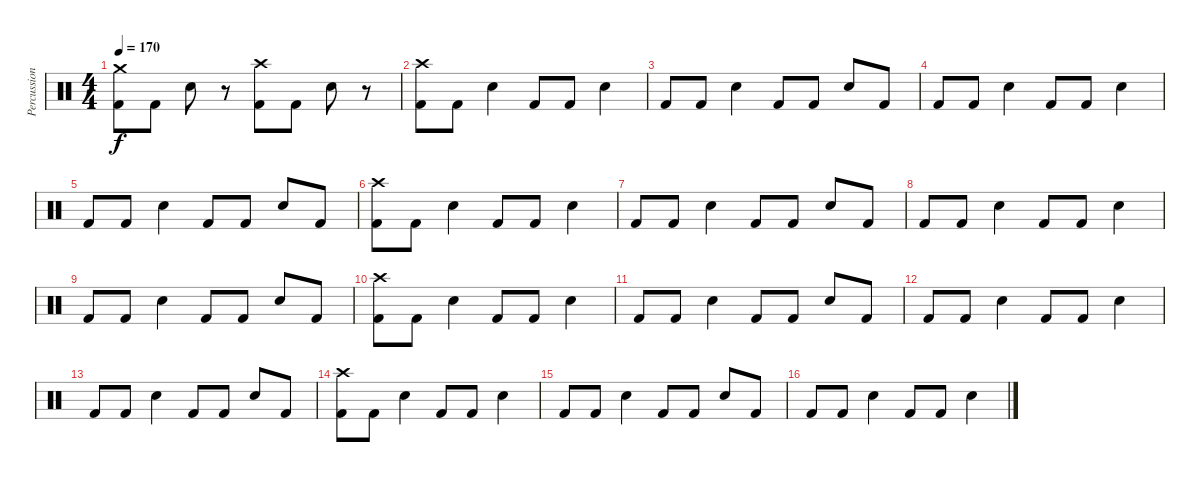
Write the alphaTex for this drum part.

\track ("Percussion" "Percussion") {instrument percussion}
\staff {score}
\articulation defaults
\ts (4 4)
\tempo 170
\clef neutral
\ks c
("Crash medium (hit)" "Kick (hit) 2").8{dy f} "Kick (hit) 2".8 "Electric Snare (hit)".8 r.8 ("Crash high (hit)" "Kick (hit) 2").8 "Kick (hit) 2".8 "Electric Snare (hit)".8 r.8 |
("Crash high (hit)" "Kick (hit) 2").8 "Kick (hit) 2".8 "Electric Snare (hit)".4 "Kick (hit) 2".8 "Kick (hit) 2".8 "Electric Snare (hit)".4 |
"Kick (hit) 2".8 "Kick (hit) 2".8 "Electric Snare (hit)".4 "Kick (hit) 2".8 "Kick (hit) 2".8 "Electric Snare (hit)".8 "Kick (hit) 2".8 |
"Kick (hit) 2".8 "Kick (hit) 2".8 "Electric Snare (hit)".4 "Kick (hit) 2".8 "Kick (hit) 2".8 "Electric Snare (hit)".4 |
"Kick (hit) 2".8 "Kick (hit) 2".8 "Electric Snare (hit)".4 "Kick (hit) 2".8 "Kick (hit) 2".8 "Electric Snare (hit)".8 "Kick (hit) 2".8 |
("Crash high (hit)" "Kick (hit) 2").8 "Kick (hit) 2".8 "Electric Snare (hit)".4 "Kick (hit) 2".8 "Kick (hit) 2".8 "Electric Snare (hit)".4 |
"Kick (hit) 2".8 "Kick (hit) 2".8 "Electric Snare (hit)".4 "Kick (hit) 2".8 "Kick (hit) 2".8 "Electric Snare (hit)".8 "Kick (hit) 2".8 |
"Kick (hit) 2".8 "Kick (hit) 2".8 "Electric Snare (hit)".4 "Kick (hit) 2".8 "Kick (hit) 2".8 "Electric Snare (hit)".4 |
"Kick (hit) 2".8 "Kick (hit) 2".8 "Electric Snare (hit)".4 "Kick (hit) 2".8 "Kick (hit) 2".8 "Electric Snare (hit)".8 "Kick (hit) 2".8 |
("Crash high (hit)" "Kick (hit) 2").8 "Kick (hit) 2".8 "Electric Snare (hit)".4 "Kick (hit) 2".8 "Kick (hit) 2".8 "Electric Snare (hit)".4 |
"Kick (hit) 2".8 "Kick (hit) 2".8 "Electric Snare (hit)".4 "Kick (hit) 2".8 "Kick (hit) 2".8 "Electric Snare (hit)".8 "Kick (hit) 2".8 |
"Kick (hit) 2".8 "Kick (hit) 2".8 "Electric Snare (hit)".4 "Kick (hit) 2".8 "Kick (hit) 2".8 "Electric Snare (hit)".4 |
"Kick (hit) 2".8 "Kick (hit) 2".8 "Electric Snare (hit)".4 "Kick (hit) 2".8 "Kick (hit) 2".8 "Electric Snare (hit)".8 "Kick (hit) 2".8 |
("Crash high (hit)" "Kick (hit) 2").8 "Kick (hit) 2".8 "Electric Snare (hit)".4 "Kick (hit) 2".8 "Kick (hit) 2".8 "Electric Snare (hit)".4 |
"Kick (hit) 2".8 "Kick (hit) 2".8 "Electric Snare (hit)".4 "Kick (hit) 2".8 "Kick (hit) 2".8 "Electric Snare (hit)".8 "Kick (hit) 2".8 |
"Kick (hit) 2".8 "Kick (hit) 2".8 "Electric Snare (hit)".4 "Kick (hit) 2".8 "Kick (hit) 2".8 "Electric Snare (hit)".4
